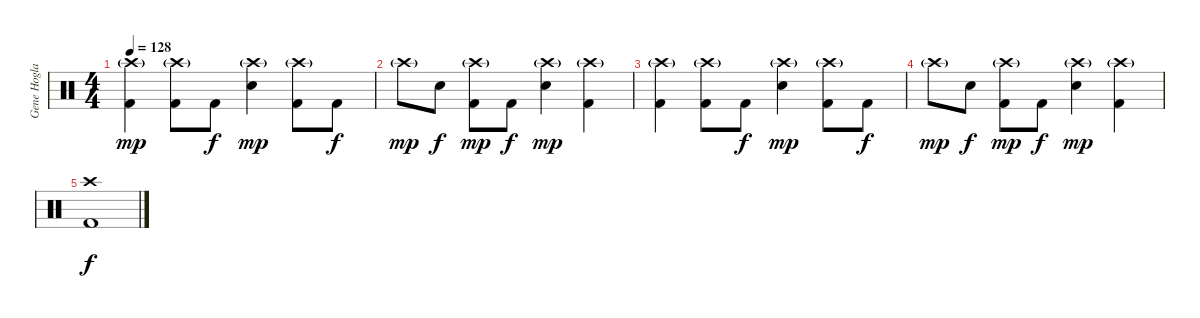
\track ("Gene Hoglan" "Gene Hogla") {instrument percussion}
\staff {score}
\articulation defaults
\ts (4 4)
\tempo 128
\clef neutral
\ks c
("Crash high (hit)"{g} "Kick (hit) 2").4{dy mp} ("Crash high (hit)"{g} "Kick (hit) 2").8 "Kick (hit) 2".8{dy f} ("Crash high (hit)"{g} "Electric Snare (hit)").4{dy mp} ("Crash high (hit)"{g} "Kick (hit) 2").8 "Kick (hit) 2".8{dy f} |
"Crash high (hit)"{g}.8{dy mp} "Electric Snare (hit)".8{dy f} ("Crash high (hit)"{g} "Kick (hit) 2").8{dy mp} "Kick (hit) 2".8{dy f} ("Crash high (hit)"{g} "Electric Snare (hit)").4{dy mp} ("Crash high (hit)"{g} "Kick (hit) 2").4 |
("Crash high (hit)"{g} "Kick (hit) 2").4 ("Crash high (hit)"{g} "Kick (hit) 2").8 "Kick (hit) 2".8{dy f} ("Crash high (hit)"{g} "Electric Snare (hit)").4{dy mp} ("Crash high (hit)"{g} "Kick (hit) 2").8 "Kick (hit) 2".8{dy f} |
"Crash high (hit)"{g}.8{dy mp} "Electric Snare (hit)".8{dy f} ("Crash high (hit)"{g} "Kick (hit) 2").8{dy mp} "Kick (hit) 2".8{dy f} ("Crash high (hit)"{g} "Electric Snare (hit)").4{dy mp} ("Crash high (hit)"{g} "Kick (hit) 2").4 |
("Crash high (hit)" "Kick (hit) 2").1{dy f}
